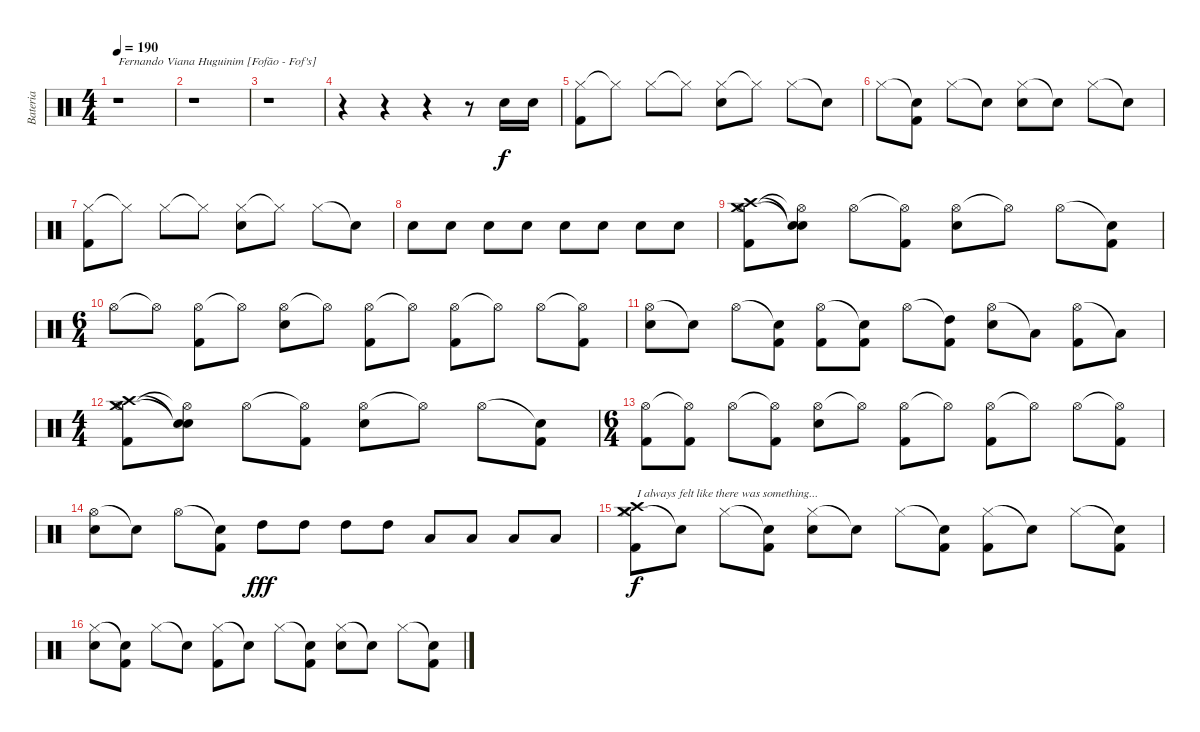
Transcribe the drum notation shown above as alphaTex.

\track ("Bateria" "Bateria") {instrument percussion}
\staff {score}
\articulation defaults
\ts (4 4)
\tempo 190
\clef neutral
\ks c
r.1{txt "Fernando Viana Huguinim [Fofão - Fof's]" dy f} |
r.1 |
r.1 |
r.4 r.4 r.4 r.8 "Electric Snare (hit)".16 "Electric Snare (hit)".16 |
("Hi-Hat (closed)" "Kick (hit) 2").8 "Hi-Hat (closed)"{t}.8 "Hi-Hat (closed)".8 "Hi-Hat (closed)"{t}.8 ("Hi-Hat (closed)" "Electric Snare (hit)").8 "Hi-Hat (closed)"{t}.8 "Hi-Hat (closed)".8 "Snare (hit)"{t}.8 |
"Hi-Hat (closed)".8 ("Snare (hit)"{t} "Kick (hit) 2").8 "Hi-Hat (closed)".8 "Snare (hit)"{t}.8 ("Hi-Hat (closed)" "Electric Snare (hit)").8 "Snare (hit)"{t}.8 "Hi-Hat (closed)".8 "Snare (hit)"{t}.8 |
("Hi-Hat (closed)" "Kick (hit) 2").8 "Hi-Hat (closed)"{t}.8 "Hi-Hat (closed)".8 "Hi-Hat (closed)"{t}.8 ("Hi-Hat (closed)" "Electric Snare (hit)").8 "Hi-Hat (closed)"{t}.8 "Hi-Hat (closed)".8 "Snare (hit)"{t}.8 |
"Electric Snare (hit)".8 "Electric Snare (hit)".8 "Electric Snare (hit)".8 "Electric Snare (hit)".8 "Electric Snare (hit)".8 "Electric Snare (hit)".8 "Electric Snare (hit)".8 "Electric Snare (hit)".8 |
("Hi-Hat (open)" "Crash high (hit)" "Crash medium (hit)" "Kick (hit) 2").8 ("Snare (hit)"{t} "Snare (hit)"{t} "Hi-Hat (open)"{t}).8 "Hi-Hat (open)".8 ("Hi-Hat (open)"{t} "Kick (hit) 2").8 ("Hi-Hat (open)" "Electric Snare (hit)").8 "Hi-Hat (open)"{t}.8 "Hi-Hat (open)".8 ("Snare (hit)"{t} "Kick (hit) 2").8 |
\ts (6 4)
"Hi-Hat (open)".8 "Hi-Hat (open)"{t}.8 ("Hi-Hat (open)" "Kick (hit) 2").8 "Hi-Hat (open)"{t}.8 ("Hi-Hat (open)" "Electric Snare (hit)").8 "Hi-Hat (open)"{t}.8 ("Hi-Hat (open)" "Kick (hit) 2").8 "Hi-Hat (open)"{t}.8 ("Hi-Hat (open)" "Kick (hit) 2").8 "Hi-Hat (open)"{t}.8 "Hi-Hat (open)".8 ("Hi-Hat (open)"{t} "Kick (hit) 2").8 |
("Hi-Hat (open)" "Electric Snare (hit)").8 "Snare (hit)"{t}.8 "Hi-Hat (open)".8 ("Snare (hit)"{t} "Kick (hit) 2").8 ("Hi-Hat (open)" "Kick (hit) 2").8 ("Snare (hit)"{t} "Kick (hit) 2").8 "Hi-Hat (open)".8 ("High Tom (hit)"{t} "Kick (hit) 2").8 ("Hi-Hat (open)" "Electric Snare (hit)").8 "Low Tom (hit)"{t}.8 ("Hi-Hat (open)" "Kick (hit) 2").8 "Low Tom (hit)"{t}.8 |
\ts (4 4)
("Hi-Hat (open)" "Crash high (hit)" "Crash medium (hit)" "Kick (hit) 2").8 ("Snare (hit)"{t} "Snare (hit)"{t} "Hi-Hat (open)"{t}).8 "Hi-Hat (open)".8 ("Hi-Hat (open)"{t} "Kick (hit) 2").8 ("Hi-Hat (open)" "Electric Snare (hit)").8 "Hi-Hat (open)"{t}.8 "Hi-Hat (open)".8 ("Snare (hit)"{t} "Kick (hit) 2").8 |
\ts (6 4)
("Hi-Hat (open)" "Kick (hit) 2").8 ("Hi-Hat (open)"{t} "Kick (hit) 2").8 "Hi-Hat (open)".8 ("Hi-Hat (open)"{t} "Kick (hit) 2").8 ("Hi-Hat (open)" "Electric Snare (hit)").8 "Hi-Hat (open)"{t}.8 ("Hi-Hat (open)" "Kick (hit) 2").8 "Hi-Hat (open)"{t}.8 ("Hi-Hat (open)" "Kick (hit) 2").8 "Hi-Hat (open)"{t}.8 "Hi-Hat (open)".8 ("Hi-Hat (open)"{t} "Kick (hit) 2").8 |
("Hi-Hat (open)" "Electric Snare (hit)").8 "Snare (hit)"{t}.8 "Hi-Hat (open)".8 ("Snare (hit)"{t} "Kick (hit) 2").8 "High Tom (hit)".8{dy fff} "High Tom (hit)".8 "High Tom (hit)".8 "High Tom (hit)".8 "Low Tom (hit)".8 "Low Tom (hit)".8 "Low Tom (hit)".8 "Low Tom (hit)".8 |
("Hi-Hat (closed)" "Crash high (hit)" "Crash medium (hit)" "Kick (hit) 2").8{txt "I always felt like there was something..." dy f} "Snare (hit)"{t}.8 "Hi-Hat (closed)".8 ("Snare (hit)"{t} "Kick (hit) 2").8 ("Hi-Hat (closed)" "Electric Snare (hit)").8 "Snare (hit)"{t}.8 "Hi-Hat (closed)".8 ("Snare (hit)"{t} "Kick (hit) 2").8 ("Hi-Hat (closed)" "Kick (hit) 2").8 "Snare (hit)"{t}.8 "Hi-Hat (closed)".8 ("Snare (hit)"{t} "Kick (hit) 2").8 |
("Hi-Hat (closed)" "Electric Snare (hit)").8 ("Snare (hit)"{t} "Kick (hit) 2").8 "Hi-Hat (closed)".8 "Snare (hit)"{t}.8 ("Hi-Hat (closed)" "Kick (hit) 2").8 "Snare (hit)"{t}.8 "Hi-Hat (closed)".8 ("Snare (hit)"{t} "Kick (hit) 2").8 ("Hi-Hat (closed)" "Electric Snare (hit)").8 "Snare (hit)"{t}.8 "Hi-Hat (closed)".8 ("Snare (hit)"{t} "Kick (hit) 2").8
